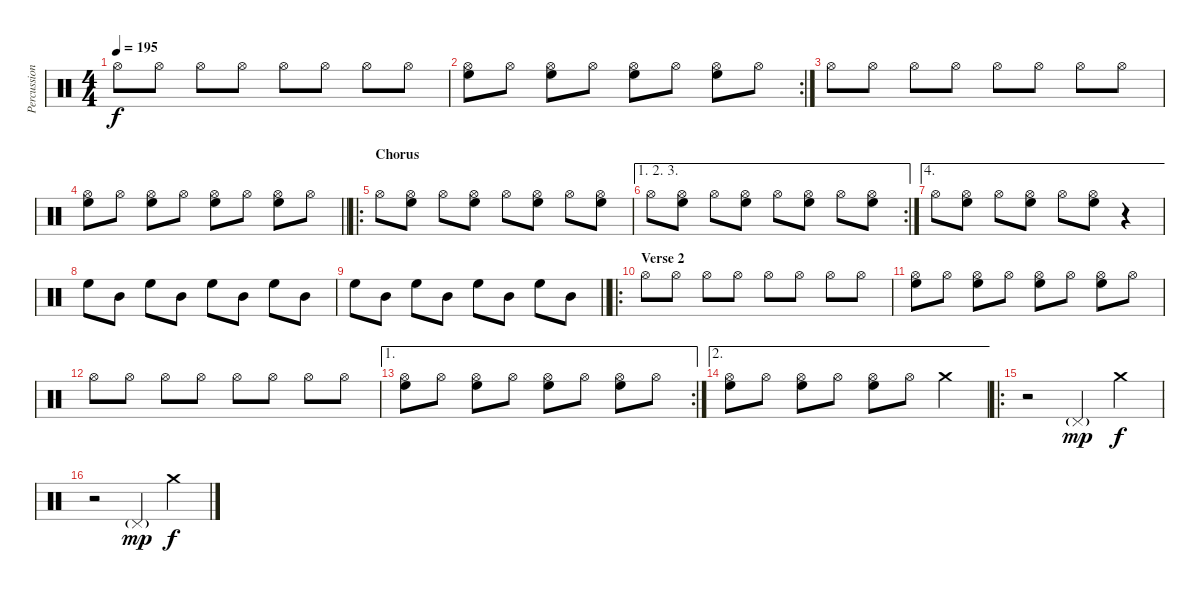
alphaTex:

\track ("Percussion" "Percussion") {instrument percussion}
\staff {score}
\articulation defaults
\ts (4 4)
\tempo 195
\clef neutral
\ks c "Hi-Hat (open)".8{dy f} "Hi-Hat (open)".8 "Hi-Hat (open)".8 "Hi-Hat (open)".8 "Hi-Hat (open)".8 "Hi-Hat (open)".8 "Hi-Hat (open)".8 "Hi-Hat (open)".8
|
\rc 2
("High Floor Tom (hit)" "Hi-Hat (open)").8 "Hi-Hat (open)".8 ("High Floor Tom (hit)" "Hi-Hat (open)").8 "Hi-Hat (open)".8 ("High Floor Tom (hit)" "Hi-Hat (open)").8 "Hi-Hat (open)".8 ("High Floor Tom (hit)" "Hi-Hat (open)").8 "Hi-Hat (open)".8 |
"Hi-Hat (open)".8 "Hi-Hat (open)".8 "Hi-Hat (open)".8 "Hi-Hat (open)".8 "Hi-Hat (open)".8 "Hi-Hat (open)".8 "Hi-Hat (open)".8 "Hi-Hat (open)".8 |
\barLineRight lightlight
("High Floor Tom (hit)" "Hi-Hat (open)").8 "Hi-Hat (open)".8 ("High Floor Tom (hit)" "Hi-Hat (open)").8 "Hi-Hat (open)".8 ("High Floor Tom (hit)" "Hi-Hat (open)").8 "Hi-Hat (open)".8 ("High Floor Tom (hit)" "Hi-Hat (open)").8 "Hi-Hat (open)".8 |
\ro
\section ("" "Chorus")
"Hi-Hat (open)".8 ("High Floor Tom (hit)" "Hi-Hat (open)").8 "Hi-Hat (open)".8 ("High Floor Tom (hit)" "Hi-Hat (open)").8 "Hi-Hat (open)".8 ("High Floor Tom (hit)" "Hi-Hat (open)").8 "Hi-Hat (open)".8 ("High Floor Tom (hit)" "Hi-Hat (open)").8 |
\ae (1 2 3)
\rc 2 "Hi-Hat (open)".8
("High Floor Tom (hit)" "Hi-Hat (open)").8 "Hi-Hat (open)".8 ("High Floor Tom (hit)" "Hi-Hat (open)").8 "Hi-Hat (open)".8 ("High Floor Tom (hit)" "Hi-Hat (open)").8 "Hi-Hat (open)".8 ("High Floor Tom (hit)" "Hi-Hat (open)").8 |
\ae 4 "Hi-Hat (open)".8
("High Floor Tom (hit)" "Hi-Hat (open)").8 "Hi-Hat (open)".8 ("High Floor Tom (hit)" "Hi-Hat (open)").8 "Hi-Hat (open)".8 ("High Floor Tom (hit)" "Hi-Hat (open)").8 r.4 |
"High Floor Tom (hit)".8{volume 1} "Mid Tom (hit)".8{volume 11} "High Floor Tom (hit)".8 "Mid Tom (hit)".8 "High Floor Tom (hit)".8 "Mid Tom (hit)".8 "High Floor Tom (hit)".8 "Mid Tom (hit)".8 |
\barLineRight lightlight "High Floor Tom (hit)".8 "Mid Tom (hit)".8 "High Floor Tom (hit)".8 "Mid Tom (hit)".8 "High Floor Tom (hit)".8 "Mid Tom (hit)".8 "High Floor Tom (hit)".8 "Mid Tom (hit)".8
|
\ro
\section ("" "Verse 2")
"Hi-Hat (open)".8{volume 5} "Hi-Hat (open)".8 "Hi-Hat (open)".8 "Hi-Hat (open)".8 "Hi-Hat (open)".8 "Hi-Hat (open)".8 "Hi-Hat (open)".8 "Hi-Hat (open)".8 |
("High Floor Tom (hit)" "Hi-Hat (open)").8 "Hi-Hat (open)".8 ("High Floor Tom (hit)" "Hi-Hat (open)").8 "Hi-Hat (open)".8 ("High Floor Tom (hit)" "Hi-Hat (open)").8 "Hi-Hat (open)".8 ("High Floor Tom (hit)" "Hi-Hat (open)").8 "Hi-Hat (open)".8 |
"Hi-Hat (open)".8 "Hi-Hat (open)".8 "Hi-Hat (open)".8 "Hi-Hat (open)".8 "Hi-Hat (open)".8 "Hi-Hat (open)".8 "Hi-Hat (open)".8 "Hi-Hat (open)".8 |
\ae 1
\rc 2
("High Floor Tom (hit)" "Hi-Hat (open)").8 "Hi-Hat (open)".8 ("High Floor Tom (hit)" "Hi-Hat (open)").8 "Hi-Hat (open)".8 ("High Floor Tom (hit)" "Hi-Hat (open)").8 "Hi-Hat (open)".8 ("High Floor Tom (hit)" "Hi-Hat (open)").8 "Hi-Hat (open)".8 |
\ae 2
("High Floor Tom (hit)" "Hi-Hat (open)").8 "Hi-Hat (open)".8 ("High Floor Tom (hit)" "Hi-Hat (open)").8 "Hi-Hat (open)".8 ("High Floor Tom (hit)" "Hi-Hat (open)").8 "Hi-Hat (open)".8 "Crash medium (hit)".4 |
\ro
r.2 "Pedal Hi-Hat (hit)"{g}.4{dy mp} "Crash medium (hit)".4{dy f} |
r.2 "Pedal Hi-Hat (hit)"{g}.4{dy mp} "Crash medium (hit)".4{dy f}
